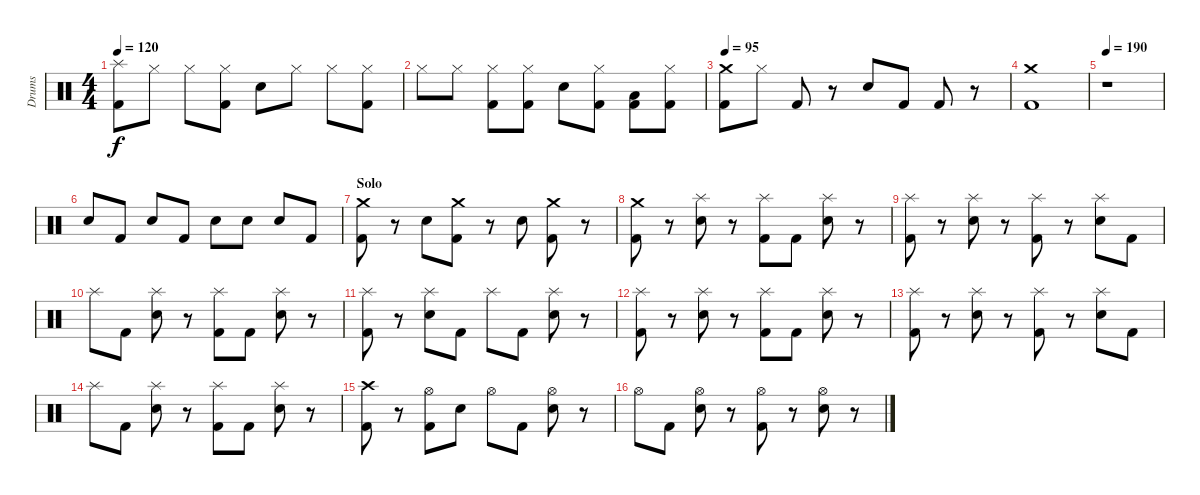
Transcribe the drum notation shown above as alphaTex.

\track ("Drums" "Drums") {instrument percussion}
\staff {score}
\articulation defaults
\ts (4 4)
\tempo 120
\clef neutral
\ks c
("Splash (hit)" "Kick (hit) 2").8{dy f} "Hi-Hat (closed)".8 "Hi-Hat (closed)".8 ("Hi-Hat (closed)" "Kick (hit) 2").8 "Snare (hit) 2".8 "Hi-Hat (closed)".8 "Hi-Hat (closed)".8 ("Hi-Hat (closed)" "Kick (hit) 2").8 |
"Hi-Hat (closed)".8 "Hi-Hat (closed)".8 ("Hi-Hat (closed)" "Kick (hit) 2").8 ("Hi-Hat (closed)" "Kick (hit) 2").8 "Snare (hit) 2".8 ("Hi-Hat (closed)" "Kick (hit) 2").8 ("Low Tom (hit)" "Kick (hit) 2").8 ("Hi-Hat (closed)" "Kick (hit) 2").8 |
\tempo 95
("Crash medium (hit)" "Kick (hit) 2").8 "Hi-Hat (closed)".8 "Kick (hit) 2".8 r.8 "Snare (hit) 2".8 "Kick (hit) 2".8 "Kick (hit) 2".8 r.8 |
("Crash medium (hit)" "Kick (hit) 2").1 |
\tempo 190
r.1 |
"Snare (hit) 2".8 "Kick (hit) 2".8 "Snare (hit) 2".8 "Kick (hit) 2".8 "Snare (hit) 2".8 "Snare (hit) 2".8 "Snare (hit) 2".8 "Kick (hit) 2".8 |
\section ("" "Solo")
("Crash medium (hit)" "Kick (hit) 2").8 r.8 "Snare (hit) 2".8 ("Crash medium (hit)" "Kick (hit) 2").8 r.8 "Snare (hit) 2".8 ("Crash medium (hit)" "Kick (hit) 2").8 r.8 |
("Crash medium (hit)" "Kick (hit) 2").8 r.8 ("Splash (hit)" "Snare (hit) 2").8 r.8 ("Splash (hit)" "Kick (hit) 2").8 "Kick (hit) 2".8 ("Splash (hit)" "Snare (hit) 2").8 r.8 |
("Splash (hit)" "Kick (hit) 2").8 r.8 ("Splash (hit)" "Snare (hit) 2").8 r.8 ("Splash (hit)" "Kick (hit) 2").8 r.8 ("Splash (hit)" "Snare (hit) 2").8 "Kick (hit) 2".8 |
"Splash (hit)".8 "Kick (hit) 2".8 ("Splash (hit)" "Snare (hit) 2").8 r.8 ("Splash (hit)" "Kick (hit) 2").8 "Kick (hit) 2".8 ("Splash (hit)" "Snare (hit) 2").8 r.8 |
("Splash (hit)" "Kick (hit) 2").8 r.8 ("Splash (hit)" "Snare (hit) 2").8 "Kick (hit) 2".8 "Splash (hit)".8 "Kick (hit) 2".8 ("Splash (hit)" "Snare (hit) 2").8 r.8 |
("Splash (hit)" "Kick (hit) 2").8 r.8 ("Splash (hit)" "Snare (hit) 2").8 r.8 ("Splash (hit)" "Kick (hit) 2").8 "Kick (hit) 2".8 ("Splash (hit)" "Snare (hit) 2").8 r.8 |
("Splash (hit)" "Kick (hit) 2").8 r.8 ("Splash (hit)" "Snare (hit) 2").8 r.8 ("Splash (hit)" "Kick (hit) 2").8 r.8 ("Splash (hit)" "Snare (hit) 2").8 "Kick (hit) 2".8 |
"Splash (hit)".8 "Kick (hit) 2".8 ("Splash (hit)" "Snare (hit) 2").8 r.8 ("Splash (hit)" "Kick (hit) 2").8 "Kick (hit) 2".8 ("Splash (hit)" "Snare (hit) 2").8 r.8 |
("Crash high (hit)" "Kick (hit) 2").8 r.8 ("Hi-Hat (open)" "Kick (hit) 2").8 "Snare (hit) 2".8 "Hi-Hat (open)".8 "Kick (hit) 2".8 ("Hi-Hat (open)" "Snare (hit) 2").8 r.8 |
"Hi-Hat (open)".8 "Kick (hit) 2".8 ("Hi-Hat (open)" "Snare (hit) 2").8 r.8 ("Hi-Hat (open)" "Kick (hit) 2").8 r.8 ("Hi-Hat (open)" "Snare (hit) 2").8 r.8
